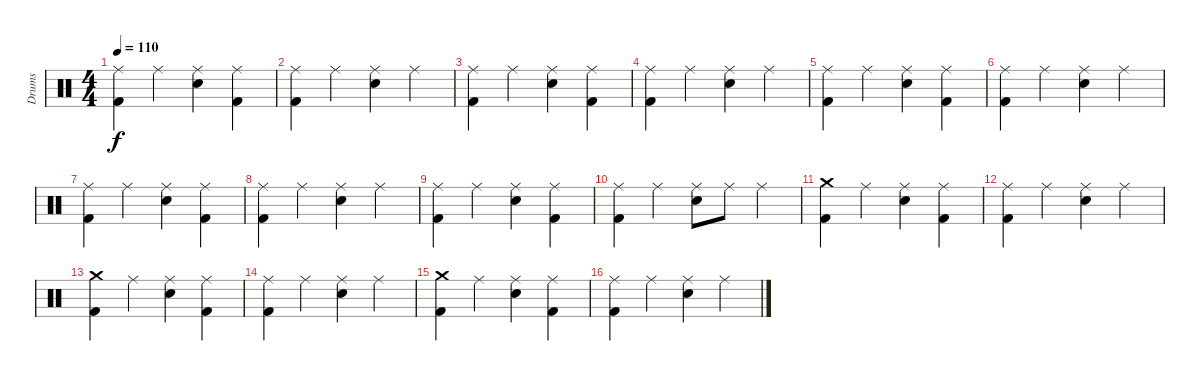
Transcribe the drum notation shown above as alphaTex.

\track ("Drums" "Drums") {instrument percussion}
\staff {score}
\articulation defaults
\ts (4 4)
\tempo 110
\clef neutral
\ks c
("Ride (middle)" "Kick (hit) 2").4{dy f} "Ride (middle)".4 ("Ride (middle)" "Electric Snare (hit)").4 ("Ride (middle)" "Kick (hit) 2").4 |
("Ride (middle)" "Kick (hit) 2").4 "Ride (middle)".4 ("Ride (middle)" "Electric Snare (hit)").4 "Ride (middle)".4 |
("Ride (middle)" "Kick (hit) 2").4 "Ride (middle)".4 ("Ride (middle)" "Electric Snare (hit)").4 ("Ride (middle)" "Kick (hit) 2").4 |
("Ride (middle)" "Kick (hit) 2").4 "Ride (middle)".4 ("Ride (middle)" "Electric Snare (hit)").4 "Ride (middle)".4 |
("Ride (middle)" "Kick (hit) 2").4 "Ride (middle)".4 ("Ride (middle)" "Electric Snare (hit)").4 ("Ride (middle)" "Kick (hit) 2").4 |
("Ride (middle)" "Kick (hit) 2").4 "Ride (middle)".4 ("Ride (middle)" "Electric Snare (hit)").4 "Ride (middle)".4 |
("Ride (middle)" "Kick (hit) 2").4 "Ride (middle)".4 ("Ride (middle)" "Electric Snare (hit)").4 ("Ride (middle)" "Kick (hit) 2").4 |
("Ride (middle)" "Kick (hit) 2").4 "Ride (middle)".4 ("Ride (middle)" "Electric Snare (hit)").4 "Ride (middle)".4 |
("Ride (middle)" "Kick (hit) 2").4 "Ride (middle)".4 ("Ride (middle)" "Electric Snare (hit)").4 ("Ride (middle)" "Kick (hit) 2").4 |
("Ride (middle)" "Kick (hit) 2").4 "Ride (middle)".4 ("Ride (middle)" "Electric Snare (hit)").8 "Ride (middle)".8 "Ride (middle)".4 |
("Crash medium (hit)" "Kick (hit) 2").4 "Ride (middle)".4 ("Ride (middle)" "Electric Snare (hit)").4 ("Ride (middle)" "Kick (hit) 2").4 |
("Ride (middle)" "Kick (hit) 2").4 "Ride (middle)".4 ("Ride (middle)" "Electric Snare (hit)").4 "Ride (middle)".4 |
("Crash medium (hit)" "Kick (hit) 2").4 "Ride (middle)".4 ("Ride (middle)" "Electric Snare (hit)").4 ("Ride (middle)" "Kick (hit) 2").4 |
("Ride (middle)" "Kick (hit) 2").4 "Ride (middle)".4 ("Ride (middle)" "Electric Snare (hit)").4 "Ride (middle)".4 |
("Crash medium (hit)" "Kick (hit) 2").4 "Ride (middle)".4 ("Ride (middle)" "Electric Snare (hit)").4 ("Ride (middle)" "Kick (hit) 2").4 |
("Ride (middle)" "Kick (hit) 2").4 "Ride (middle)".4 ("Ride (middle)" "Electric Snare (hit)").4 "Ride (middle)".4
